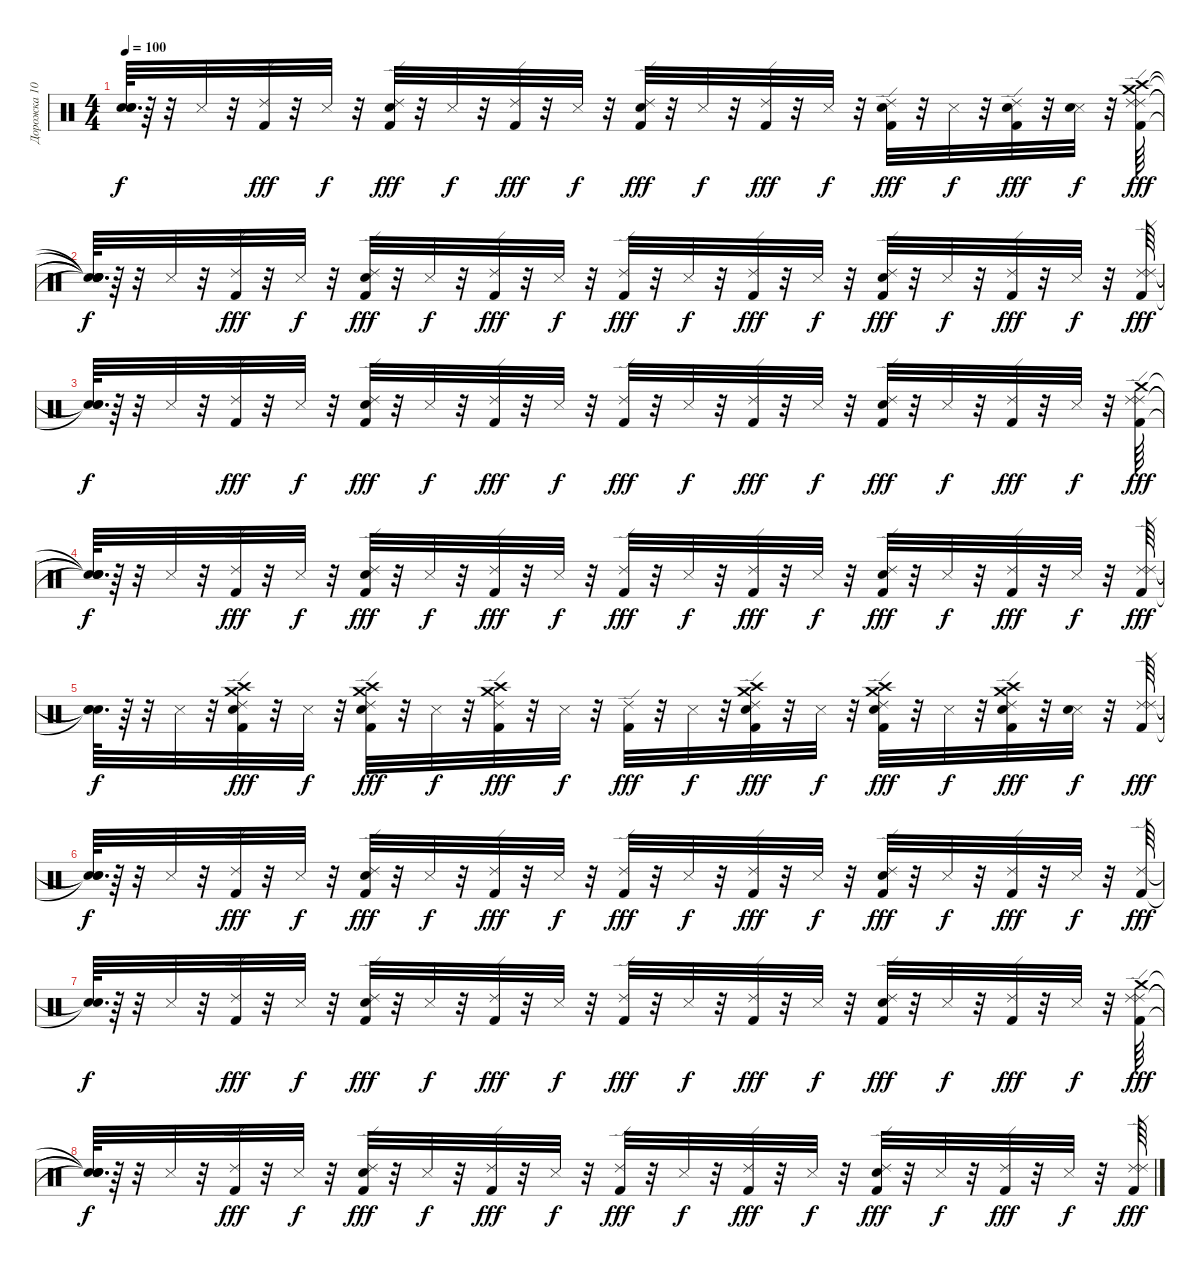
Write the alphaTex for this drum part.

\track ("Дорожка 10" "Дорожка 10") {instrument percussion}
\staff {score}
\articulation defaults
\ts (4 4)
\tempo 100
\clef neutral
\ks c
("Snare (hit)"{t} "Snare (hit)"{t} "Snare (hit)"{t}).64{d dy f} r.64 r.32 "Metronome (hit)".32 r.32 ("Kick (hit) 2" "Ride (edge) 2").32{dy fff} r.32 "Metronome (hit)".32{dy f} r.32 ("Kick (hit) 2" "Snare (hit) 2" "Ride (edge) 2").32{dy fff} r.32 "Metronome (hit)".32{dy f} r.32 ("Kick (hit) 2" "Ride (edge) 2").32{dy fff} r.32 "Metronome (hit)".32{dy f} r.32 ("Kick (hit) 2" "Snare (hit) 2" "Ride (edge) 2").32{dy fff} r.32 "Metronome (hit)".32{dy f} r.32 ("Kick (hit) 2" "Ride (edge) 2").32{dy fff} r.32 "Metronome (hit)".32{dy f} r.32 ("Kick (hit) 2" "Snare (hit) 2" "Ride (edge) 2").32{dy fff} r.32 "Metronome (hit)".32{dy f} r.32 ("Kick (hit) 2" "Snare (hit) 2" "Ride (edge) 2").32{dy fff} r.32 ("Metronome (hit)" "Snare (hit) 2").32{dy f} r.32 ("Ride (edge) 2" "Crash high (hit)" "Crash medium (hit)" "Kick (hit) 2" "Ride (edge) 2").64{dy fff} |
("Snare (hit)"{t} "Snare (hit)"{t} "Snare (hit)"{t} "Snare (hit)"{t} "Snare (hit)"{t}).64{d dy f} r.64 r.32 "Metronome (hit)".32 r.32 ("Kick (hit) 2" "Ride (edge) 2").32{dy fff} r.32 "Metronome (hit)".32{dy f} r.32 ("Snare (hit) 2" "Kick (hit) 2" "Ride (edge) 2").32{dy fff} r.32 "Metronome (hit)".32{dy f} r.32 ("Kick (hit) 2" "Ride (edge) 2").32{dy fff} r.32 "Metronome (hit)".32{dy f} r.32 ("Kick (hit) 2" "Ride (edge) 2").32{dy fff} r.32 "Metronome (hit)".32{dy f} r.32 ("Kick (hit) 2" "Ride (edge) 2").32{dy fff} r.32 "Metronome (hit)".32{dy f} r.32 ("Snare (hit) 2" "Kick (hit) 2" "Ride (edge) 2").32{dy fff} r.32 "Metronome (hit)".32{dy f} r.32 ("Kick (hit) 2" "Ride (edge) 2").32{dy fff} r.32 "Metronome (hit)".32{dy f} r.32 ("Ride (edge) 2" "Kick (hit) 2" "Ride (edge) 2").64{dy fff} |
("Snare (hit)"{t} "Snare (hit)"{t} "Snare (hit)"{t}).64{d dy f} r.64 r.32 "Metronome (hit)".32 r.32 ("Kick (hit) 2" "Ride (edge) 2").32{dy fff} r.32 "Metronome (hit)".32{dy f} r.32 ("Snare (hit) 2" "Kick (hit) 2" "Ride (edge) 2").32{dy fff} r.32 "Metronome (hit)".32{dy f} r.32 ("Kick (hit) 2" "Ride (edge) 2").32{dy fff} r.32 "Metronome (hit)".32{dy f} r.32 ("Kick (hit) 2" "Ride (edge) 2").32{dy fff} r.32 "Metronome (hit)".32{dy f} r.32 ("Kick (hit) 2" "Ride (edge) 2").32{dy fff} r.32 "Metronome (hit)".32{dy f} r.32 ("Snare (hit) 2" "Kick (hit) 2" "Ride (edge) 2").32{dy fff} r.32 "Metronome (hit)".32{dy f} r.32 ("Kick (hit) 2" "Ride (edge) 2").32{dy fff} r.32 "Metronome (hit)".32{dy f} r.32 ("Ride (edge) 2" "Crash medium (hit)" "Kick (hit) 2" "Ride (edge) 2").64{dy fff} |
("Snare (hit)"{t} "Snare (hit)"{t} "Snare (hit)"{t} "Snare (hit)"{t}).64{d dy f} r.64 r.32 "Metronome (hit)".32 r.32 ("Kick (hit) 2" "Ride (edge) 2").32{dy fff} r.32 "Metronome (hit)".32{dy f} r.32 ("Snare (hit) 2" "Kick (hit) 2" "Ride (edge) 2").32{dy fff} r.32 "Metronome (hit)".32{dy f} r.32 ("Kick (hit) 2" "Ride (edge) 2").32{dy fff} r.32 "Metronome (hit)".32{dy f} r.32 ("Kick (hit) 2" "Ride (edge) 2").32{dy fff} r.32 "Metronome (hit)".32{dy f} r.32 ("Kick (hit) 2" "Ride (edge) 2").32{dy fff} r.32 "Metronome (hit)".32{dy f} r.32 ("Snare (hit) 2" "Kick (hit) 2" "Ride (edge) 2").32{dy fff} r.32 "Metronome (hit)".32{dy f} r.32 ("Kick (hit) 2" "Ride (edge) 2").32{dy fff} r.32 "Metronome (hit)".32{dy f} r.32 ("Ride (edge) 2" "Kick (hit) 2" "Ride (edge) 2").64{dy fff} |
("Snare (hit)"{t} "Snare (hit)"{t} "Snare (hit)"{t}).64{d dy f} r.64 r.32 "Metronome (hit)".32 r.32 ("Kick (hit) 2" "Crash medium (hit)" "Crash high (hit)" "Snare (hit) 2" "Ride (edge) 2").32{dy fff} r.32 "Metronome (hit)".32{dy f} r.32 ("Kick (hit) 2" "Crash high (hit)" "Crash medium (hit)" "Snare (hit) 2" "Ride (edge) 2").32{dy fff} r.32 "Metronome (hit)".32{dy f} r.32 ("Kick (hit) 2" "Crash medium (hit)" "Crash high (hit)" "Ride (edge) 2").32{dy fff} r.32 "Metronome (hit)".32{dy f} r.32 ("Kick (hit) 2" "Ride (edge) 2").32{dy fff} r.32 "Metronome (hit)".32{dy f} r.32 ("Kick (hit) 2" "Crash medium (hit)" "Crash high (hit)" "Snare (hit) 2" "Ride (edge) 2").32{dy fff} r.32 "Metronome (hit)".32{dy f} r.32 ("Kick (hit) 2" "Crash medium (hit)" "Crash high (hit)" "Snare (hit) 2" "Ride (edge) 2").32{dy fff} r.32 "Metronome (hit)".32{dy f} r.32 ("Kick (hit) 2" "Snare (hit) 2" "Crash medium (hit)" "Crash high (hit)" "Ride (edge) 2").32{dy fff} r.32 ("Metronome (hit)" "Snare (hit) 2").32{dy f} r.32 ("Kick (hit) 2" "Ride (edge) 2" "Ride (edge) 2").64{dy fff} |
("Snare (hit)"{t} "Snare (hit)"{t} "Snare (hit)"{t}).64{d dy f} r.64 r.32 "Metronome (hit)".32 r.32 ("Kick (hit) 2" "Ride (edge) 2").32{dy fff} r.32 "Metronome (hit)".32{dy f} r.32 ("Kick (hit) 2" "Snare (hit) 2" "Ride (edge) 2").32{dy fff} r.32 "Metronome (hit)".32{dy f} r.32 ("Kick (hit) 2" "Ride (edge) 2").32{dy fff} r.32 "Metronome (hit)".32{dy f} r.32 ("Kick (hit) 2" "Ride (edge) 2").32{dy fff} r.32 "Metronome (hit)".32{dy f} r.32 ("Kick (hit) 2" "Ride (edge) 2").32{dy fff} r.32 "Metronome (hit)".32{dy f} r.32 ("Kick (hit) 2" "Snare (hit) 2" "Ride (edge) 2").32{dy fff} r.32 "Metronome (hit)".32{dy f} r.32 ("Kick (hit) 2" "Ride (edge) 2").32{dy fff} r.32 "Metronome (hit)".32{dy f} r.32 ("Kick (hit) 2" "Ride (edge) 2").64{dy fff} |
("Snare (hit)"{t} "Snare (hit)"{t}).64{d dy f} r.64 r.32 "Metronome (hit)".32 r.32 ("Kick (hit) 2" "Ride (edge) 2").32{dy fff} r.32 "Metronome (hit)".32{dy f} r.32 ("Kick (hit) 2" "Snare (hit) 2" "Ride (edge) 2").32{dy fff} r.32 "Metronome (hit)".32{dy f} r.32 ("Kick (hit) 2" "Ride (edge) 2").32{dy fff} r.32 "Metronome (hit)".32{dy f} r.32 ("Kick (hit) 2" "Ride (edge) 2").32{dy fff} r.32 "Metronome (hit)".32{dy f} r.32 ("Kick (hit) 2" "Ride (edge) 2").32{dy fff} r.32 "Metronome (hit)".32{dy f} r.32 ("Kick (hit) 2" "Snare (hit) 2" "Ride (edge) 2").32{dy fff} r.32 "Metronome (hit)".32{dy f} r.32 ("Kick (hit) 2" "Ride (edge) 2").32{dy fff} r.32 "Metronome (hit)".32{dy f} r.32 ("Ride (edge) 2" "Crash medium (hit)" "Kick (hit) 2" "Ride (edge) 2").64{dy fff} |
("Snare (hit)"{t} "Snare (hit)"{t} "Snare (hit)"{t} "Snare (hit)"{t}).64{d dy f} r.64 r.32 "Metronome (hit)".32 r.32 ("Kick (hit) 2" "Ride (edge) 2").32{dy fff} r.32 "Metronome (hit)".32{dy f} r.32 ("Kick (hit) 2" "Snare (hit) 2" "Ride (edge) 2").32{dy fff} r.32 "Metronome (hit)".32{dy f} r.32 ("Kick (hit) 2" "Ride (edge) 2").32{dy fff} r.32 "Metronome (hit)".32{dy f} r.32 ("Kick (hit) 2" "Ride (edge) 2").32{dy fff} r.32 "Metronome (hit)".32{dy f} r.32 ("Kick (hit) 2" "Ride (edge) 2").32{dy fff} r.32 "Metronome (hit)".32{dy f} r.32 ("Kick (hit) 2" "Snare (hit) 2" "Ride (edge) 2").32{dy fff} r.32 "Metronome (hit)".32{dy f} r.32 ("Kick (hit) 2" "Ride (edge) 2").32{dy fff} r.32 "Metronome (hit)".32{dy f} r.32 ("Ride (edge) 2" "Kick (hit) 2" "Ride (edge) 2").64{dy fff}
